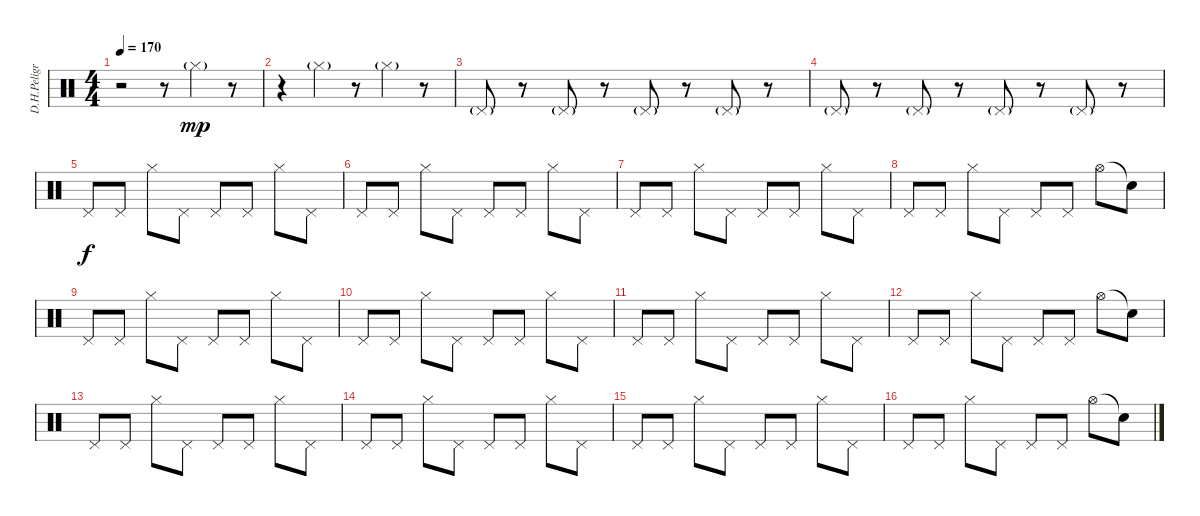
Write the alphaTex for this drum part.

\track ("D.H.Peligro" "D.H.Peligr") {instrument percussion}
\staff {score}
\articulation defaults
\ts (4 4)
\tempo 170
\clef neutral
\ks c
r.2{dy mp} r.8 "Hi-Hat (closed)"{g}.4 r.8 |
r.4 "Hi-Hat (closed)"{g}.4 r.8 "Hi-Hat (closed)"{g}.4 r.8 |
"Pedal Hi-Hat (hit)"{g}.8 r.8 "Pedal Hi-Hat (hit)"{g}.8 r.8 "Pedal Hi-Hat (hit)"{g}.8 r.8 "Pedal Hi-Hat (hit)"{g}.8 r.8 |
"Pedal Hi-Hat (hit)"{g}.8 r.8 "Pedal Hi-Hat (hit)"{g}.8 r.8 "Pedal Hi-Hat (hit)"{g}.8 r.8 "Pedal Hi-Hat (hit)"{g}.8 r.8 |
"Pedal Hi-Hat (hit)".8{dy f} "Pedal Hi-Hat (hit)".8 "Hi-Hat (closed)".8 "Pedal Hi-Hat (hit)".8 "Pedal Hi-Hat (hit)".8 "Pedal Hi-Hat (hit)".8 "Hi-Hat (closed)".8 "Pedal Hi-Hat (hit)".8 |
"Pedal Hi-Hat (hit)".8 "Pedal Hi-Hat (hit)".8 "Hi-Hat (closed)".8 "Pedal Hi-Hat (hit)".8 "Pedal Hi-Hat (hit)".8 "Pedal Hi-Hat (hit)".8 "Hi-Hat (closed)".8 "Pedal Hi-Hat (hit)".8 |
"Pedal Hi-Hat (hit)".8 "Pedal Hi-Hat (hit)".8 "Hi-Hat (closed)".8 "Pedal Hi-Hat (hit)".8 "Pedal Hi-Hat (hit)".8 "Pedal Hi-Hat (hit)".8 "Hi-Hat (closed)".8 "Pedal Hi-Hat (hit)".8 |
"Pedal Hi-Hat (hit)".8 "Pedal Hi-Hat (hit)".8 "Hi-Hat (closed)".8 "Pedal Hi-Hat (hit)".8 "Pedal Hi-Hat (hit)".8 "Pedal Hi-Hat (hit)".8 "Hi-Hat (open)".8 "Snare (hit)"{t}.8 |
"Pedal Hi-Hat (hit)".8 "Pedal Hi-Hat (hit)".8 "Hi-Hat (closed)".8 "Pedal Hi-Hat (hit)".8 "Pedal Hi-Hat (hit)".8 "Pedal Hi-Hat (hit)".8 "Hi-Hat (closed)".8 "Pedal Hi-Hat (hit)".8 |
"Pedal Hi-Hat (hit)".8 "Pedal Hi-Hat (hit)".8 "Hi-Hat (closed)".8 "Pedal Hi-Hat (hit)".8 "Pedal Hi-Hat (hit)".8 "Pedal Hi-Hat (hit)".8 "Hi-Hat (closed)".8 "Pedal Hi-Hat (hit)".8 |
"Pedal Hi-Hat (hit)".8 "Pedal Hi-Hat (hit)".8 "Hi-Hat (closed)".8 "Pedal Hi-Hat (hit)".8 "Pedal Hi-Hat (hit)".8 "Pedal Hi-Hat (hit)".8 "Hi-Hat (closed)".8 "Pedal Hi-Hat (hit)".8 |
"Pedal Hi-Hat (hit)".8 "Pedal Hi-Hat (hit)".8 "Hi-Hat (closed)".8 "Pedal Hi-Hat (hit)".8 "Pedal Hi-Hat (hit)".8 "Pedal Hi-Hat (hit)".8 "Hi-Hat (open)".8 "Snare (hit)"{t}.8 |
"Pedal Hi-Hat (hit)".8 "Pedal Hi-Hat (hit)".8 "Hi-Hat (closed)".8 "Pedal Hi-Hat (hit)".8 "Pedal Hi-Hat (hit)".8 "Pedal Hi-Hat (hit)".8 "Hi-Hat (closed)".8 "Pedal Hi-Hat (hit)".8 |
"Pedal Hi-Hat (hit)".8 "Pedal Hi-Hat (hit)".8 "Hi-Hat (closed)".8 "Pedal Hi-Hat (hit)".8 "Pedal Hi-Hat (hit)".8 "Pedal Hi-Hat (hit)".8 "Hi-Hat (closed)".8 "Pedal Hi-Hat (hit)".8 |
"Pedal Hi-Hat (hit)".8 "Pedal Hi-Hat (hit)".8 "Hi-Hat (closed)".8 "Pedal Hi-Hat (hit)".8 "Pedal Hi-Hat (hit)".8 "Pedal Hi-Hat (hit)".8 "Hi-Hat (closed)".8 "Pedal Hi-Hat (hit)".8 |
"Pedal Hi-Hat (hit)".8 "Pedal Hi-Hat (hit)".8 "Hi-Hat (closed)".8 "Pedal Hi-Hat (hit)".8 "Pedal Hi-Hat (hit)".8 "Pedal Hi-Hat (hit)".8 "Hi-Hat (open)".8 "Snare (hit)"{t}.8
